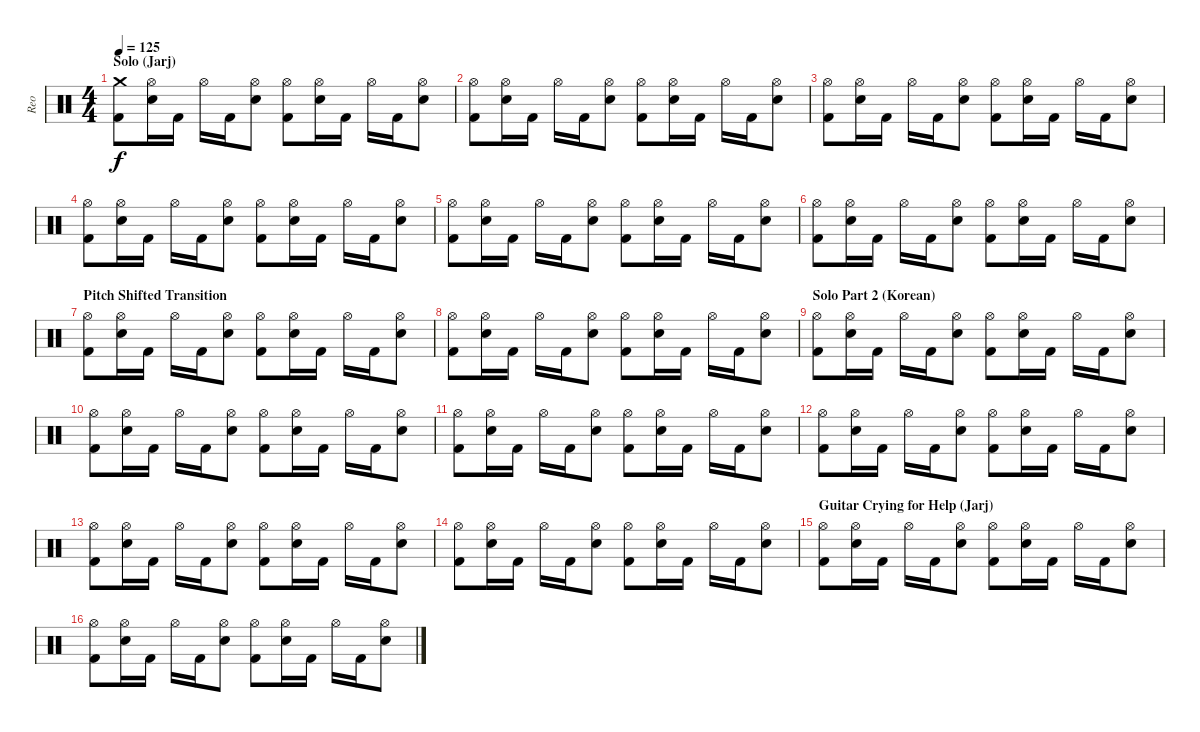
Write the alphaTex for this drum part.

\track ("Reo" "Reo") {instrument percussion}
\staff {score}
\articulation defaults
\ts (4 4)
\section ("" "Solo (Jarj)")
\tempo 125
\clef neutral
\ks c
("Crash medium (hit)" "Kick (hit) 2").8{dy f} ("Hi-Hat (open)" "Electric Snare (hit)").16 "Kick (hit) 2".16 "Hi-Hat (open)".16 "Kick (hit) 2".16 ("Hi-Hat (open)" "Electric Snare (hit)").8 ("Hi-Hat (open)" "Kick (hit) 2").8 ("Hi-Hat (open)" "Electric Snare (hit)").16 "Kick (hit) 2".16 "Hi-Hat (open)".16 "Kick (hit) 2".16 ("Hi-Hat (open)" "Electric Snare (hit)").8 |
("Hi-Hat (open)" "Kick (hit) 2").8 ("Hi-Hat (open)" "Electric Snare (hit)").16 "Kick (hit) 2".16 "Hi-Hat (open)".16 "Kick (hit) 2".16 ("Hi-Hat (open)" "Electric Snare (hit)").8 ("Hi-Hat (open)" "Kick (hit) 2").8 ("Hi-Hat (open)" "Electric Snare (hit)").16 "Kick (hit) 2".16 "Hi-Hat (open)".16 "Kick (hit) 2".16 ("Hi-Hat (open)" "Electric Snare (hit)").8 |
("Hi-Hat (open)" "Kick (hit) 2").8 ("Hi-Hat (open)" "Electric Snare (hit)").16 "Kick (hit) 2".16 "Hi-Hat (open)".16 "Kick (hit) 2".16 ("Hi-Hat (open)" "Electric Snare (hit)").8 ("Hi-Hat (open)" "Kick (hit) 2").8 ("Hi-Hat (open)" "Electric Snare (hit)").16 "Kick (hit) 2".16 "Hi-Hat (open)".16 "Kick (hit) 2".16 ("Hi-Hat (open)" "Electric Snare (hit)").8 |
("Hi-Hat (open)" "Kick (hit) 2").8 ("Hi-Hat (open)" "Electric Snare (hit)").16 "Kick (hit) 2".16 "Hi-Hat (open)".16 "Kick (hit) 2".16 ("Hi-Hat (open)" "Electric Snare (hit)").8 ("Hi-Hat (open)" "Kick (hit) 2").8 ("Hi-Hat (open)" "Electric Snare (hit)").16 "Kick (hit) 2".16 "Hi-Hat (open)".16 "Kick (hit) 2".16 ("Hi-Hat (open)" "Electric Snare (hit)").8 |
("Hi-Hat (open)" "Kick (hit) 2").8 ("Hi-Hat (open)" "Electric Snare (hit)").16 "Kick (hit) 2".16 "Hi-Hat (open)".16 "Kick (hit) 2".16 ("Hi-Hat (open)" "Electric Snare (hit)").8 ("Hi-Hat (open)" "Kick (hit) 2").8 ("Hi-Hat (open)" "Electric Snare (hit)").16 "Kick (hit) 2".16 "Hi-Hat (open)".16 "Kick (hit) 2".16 ("Hi-Hat (open)" "Electric Snare (hit)").8 |
("Hi-Hat (open)" "Kick (hit) 2").8 ("Hi-Hat (open)" "Electric Snare (hit)").16 "Kick (hit) 2".16 "Hi-Hat (open)".16 "Kick (hit) 2".16 ("Hi-Hat (open)" "Electric Snare (hit)").8 ("Hi-Hat (open)" "Kick (hit) 2").8 ("Hi-Hat (open)" "Electric Snare (hit)").16 "Kick (hit) 2".16 "Hi-Hat (open)".16 "Kick (hit) 2".16 ("Hi-Hat (open)" "Electric Snare (hit)").8 |
\section ("" "Pitch Shifted Transition")
("Hi-Hat (open)" "Kick (hit) 2").8 ("Hi-Hat (open)" "Electric Snare (hit)").16 "Kick (hit) 2".16 "Hi-Hat (open)".16 "Kick (hit) 2".16 ("Hi-Hat (open)" "Electric Snare (hit)").8 ("Hi-Hat (open)" "Kick (hit) 2").8 ("Hi-Hat (open)" "Electric Snare (hit)").16 "Kick (hit) 2".16 "Hi-Hat (open)".16 "Kick (hit) 2".16 ("Hi-Hat (open)" "Electric Snare (hit)").8 |
("Hi-Hat (open)" "Kick (hit) 2").8 ("Hi-Hat (open)" "Electric Snare (hit)").16 "Kick (hit) 2".16 "Hi-Hat (open)".16 "Kick (hit) 2".16 ("Hi-Hat (open)" "Electric Snare (hit)").8 ("Hi-Hat (open)" "Kick (hit) 2").8 ("Hi-Hat (open)" "Electric Snare (hit)").16 "Kick (hit) 2".16 "Hi-Hat (open)".16 "Kick (hit) 2".16 ("Hi-Hat (open)" "Electric Snare (hit)").8 |
\section ("" "Solo Part 2 (Korean)")
("Hi-Hat (open)" "Kick (hit) 2").8 ("Hi-Hat (open)" "Electric Snare (hit)").16 "Kick (hit) 2".16 "Hi-Hat (open)".16 "Kick (hit) 2".16 ("Hi-Hat (open)" "Electric Snare (hit)").8 ("Hi-Hat (open)" "Kick (hit) 2").8 ("Hi-Hat (open)" "Electric Snare (hit)").16 "Kick (hit) 2".16 "Hi-Hat (open)".16 "Kick (hit) 2".16 ("Hi-Hat (open)" "Electric Snare (hit)").8 |
("Hi-Hat (open)" "Kick (hit) 2").8 ("Hi-Hat (open)" "Electric Snare (hit)").16 "Kick (hit) 2".16 "Hi-Hat (open)".16 "Kick (hit) 2".16 ("Hi-Hat (open)" "Electric Snare (hit)").8 ("Hi-Hat (open)" "Kick (hit) 2").8 ("Hi-Hat (open)" "Electric Snare (hit)").16 "Kick (hit) 2".16 "Hi-Hat (open)".16 "Kick (hit) 2".16 ("Hi-Hat (open)" "Electric Snare (hit)").8 |
("Hi-Hat (open)" "Kick (hit) 2").8 ("Hi-Hat (open)" "Electric Snare (hit)").16 "Kick (hit) 2".16 "Hi-Hat (open)".16 "Kick (hit) 2".16 ("Hi-Hat (open)" "Electric Snare (hit)").8 ("Hi-Hat (open)" "Kick (hit) 2").8 ("Hi-Hat (open)" "Electric Snare (hit)").16 "Kick (hit) 2".16 "Hi-Hat (open)".16 "Kick (hit) 2".16 ("Hi-Hat (open)" "Electric Snare (hit)").8 |
("Hi-Hat (open)" "Kick (hit) 2").8 ("Hi-Hat (open)" "Electric Snare (hit)").16 "Kick (hit) 2".16 "Hi-Hat (open)".16 "Kick (hit) 2".16 ("Hi-Hat (open)" "Electric Snare (hit)").8 ("Hi-Hat (open)" "Kick (hit) 2").8 ("Hi-Hat (open)" "Electric Snare (hit)").16 "Kick (hit) 2".16 "Hi-Hat (open)".16 "Kick (hit) 2".16 ("Hi-Hat (open)" "Electric Snare (hit)").8 |
("Hi-Hat (open)" "Kick (hit) 2").8 ("Hi-Hat (open)" "Electric Snare (hit)").16 "Kick (hit) 2".16 "Hi-Hat (open)".16 "Kick (hit) 2".16 ("Hi-Hat (open)" "Electric Snare (hit)").8 ("Hi-Hat (open)" "Kick (hit) 2").8 ("Hi-Hat (open)" "Electric Snare (hit)").16 "Kick (hit) 2".16 "Hi-Hat (open)".16 "Kick (hit) 2".16 ("Hi-Hat (open)" "Electric Snare (hit)").8 |
("Hi-Hat (open)" "Kick (hit) 2").8 ("Hi-Hat (open)" "Electric Snare (hit)").16 "Kick (hit) 2".16 "Hi-Hat (open)".16 "Kick (hit) 2".16 ("Hi-Hat (open)" "Electric Snare (hit)").8 ("Hi-Hat (open)" "Kick (hit) 2").8 ("Hi-Hat (open)" "Electric Snare (hit)").16 "Kick (hit) 2".16 "Hi-Hat (open)".16 "Kick (hit) 2".16 ("Hi-Hat (open)" "Electric Snare (hit)").8 |
\section ("" "Guitar Crying for Help (Jarj)")
("Hi-Hat (open)" "Kick (hit) 2").8 ("Hi-Hat (open)" "Electric Snare (hit)").16 "Kick (hit) 2".16 "Hi-Hat (open)".16 "Kick (hit) 2".16 ("Hi-Hat (open)" "Electric Snare (hit)").8 ("Hi-Hat (open)" "Kick (hit) 2").8 ("Hi-Hat (open)" "Electric Snare (hit)").16 "Kick (hit) 2".16 "Hi-Hat (open)".16 "Kick (hit) 2".16 ("Hi-Hat (open)" "Electric Snare (hit)").8 |
("Hi-Hat (open)" "Kick (hit) 2").8 ("Hi-Hat (open)" "Electric Snare (hit)").16 "Kick (hit) 2".16 "Hi-Hat (open)".16 "Kick (hit) 2".16 ("Hi-Hat (open)" "Electric Snare (hit)").8 ("Hi-Hat (open)" "Kick (hit) 2").8 ("Hi-Hat (open)" "Electric Snare (hit)").16 "Kick (hit) 2".16 "Hi-Hat (open)".16 "Kick (hit) 2".16 ("Hi-Hat (open)" "Electric Snare (hit)").8
